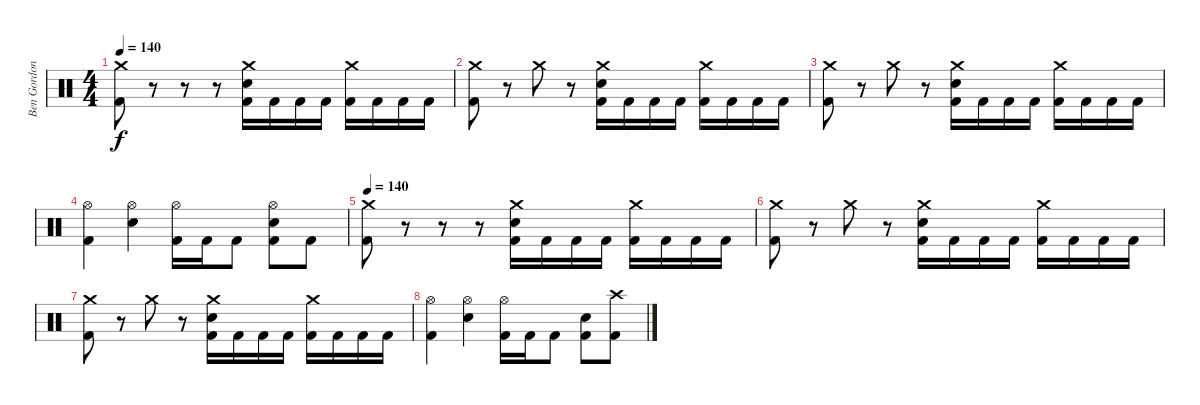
\track ("Ben Gordon" "Ben Gordon") {instrument percussion}
\staff {score}
\articulation defaults
\ts (4 4)
\tempo 140
\clef neutral
\ks c
("Crash medium (hit)" "Kick (hit) 2").8{dy f} r.8 r.8 r.8 ("Crash medium (hit)" "Electric Snare (hit)" "Kick (hit) 2").16 "Kick (hit) 2".16 "Kick (hit) 2".16 "Kick (hit) 2".16 ("Crash medium (hit)" "Kick (hit) 2").16 "Kick (hit) 2".16 "Kick (hit) 2".16 "Kick (hit) 2".16 |
("Crash medium (hit)" "Kick (hit) 2").8 r.8 "Crash medium (hit)".8 r.8 ("Crash medium (hit)" "Electric Snare (hit)" "Kick (hit) 2").16 "Kick (hit) 2".16 "Kick (hit) 2".16 "Kick (hit) 2".16 ("Crash medium (hit)" "Kick (hit) 2").16 "Kick (hit) 2".16 "Kick (hit) 2".16 "Kick (hit) 2".16 |
("Crash medium (hit)" "Kick (hit) 2").8 r.8 "Crash medium (hit)".8 r.8 ("Crash medium (hit)" "Electric Snare (hit)" "Kick (hit) 2").16 "Kick (hit) 2".16 "Kick (hit) 2".16 "Kick (hit) 2".16 ("Crash medium (hit)" "Kick (hit) 2").16 "Kick (hit) 2".16 "Kick (hit) 2".16 "Kick (hit) 2".16 |
("Hi-Hat (open)" "Kick (hit) 2").4 ("Hi-Hat (open)" "Electric Snare (hit)").4 ("Hi-Hat (open)" "Kick (hit) 2").16 "Kick (hit) 2".16 "Kick (hit) 2".8 ("Hi-Hat (open)" "Electric Snare (hit)" "Kick (hit) 2").8 "Kick (hit) 2".8 |
\tempo 140
("Crash medium (hit)" "Kick (hit) 2").8 r.8 r.8 r.8 ("Crash medium (hit)" "Electric Snare (hit)" "Kick (hit) 2").16 "Kick (hit) 2".16 "Kick (hit) 2".16 "Kick (hit) 2".16 ("Crash medium (hit)" "Kick (hit) 2").16 "Kick (hit) 2".16 "Kick (hit) 2".16 "Kick (hit) 2".16 |
("Crash medium (hit)" "Kick (hit) 2").8 r.8 "Crash medium (hit)".8 r.8 ("Crash medium (hit)" "Electric Snare (hit)" "Kick (hit) 2").16 "Kick (hit) 2".16 "Kick (hit) 2".16 "Kick (hit) 2".16 ("Crash medium (hit)" "Kick (hit) 2").16 "Kick (hit) 2".16 "Kick (hit) 2".16 "Kick (hit) 2".16 |
("Crash medium (hit)" "Kick (hit) 2").8 r.8 "Crash medium (hit)".8 r.8 ("Crash medium (hit)" "Electric Snare (hit)" "Kick (hit) 2").16 "Kick (hit) 2".16 "Kick (hit) 2".16 "Kick (hit) 2".16 ("Crash medium (hit)" "Kick (hit) 2").16 "Kick (hit) 2".16 "Kick (hit) 2".16 "Kick (hit) 2".16 |
("Hi-Hat (open)" "Kick (hit) 2").4 ("Hi-Hat (open)" "Electric Snare (hit)").4 ("Hi-Hat (open)" "Kick (hit) 2").16 "Kick (hit) 2".16 "Kick (hit) 2".8 ("Electric Snare (hit)" "Kick (hit) 2").8 ("Crash high (hit)" "Kick (hit) 2").8
